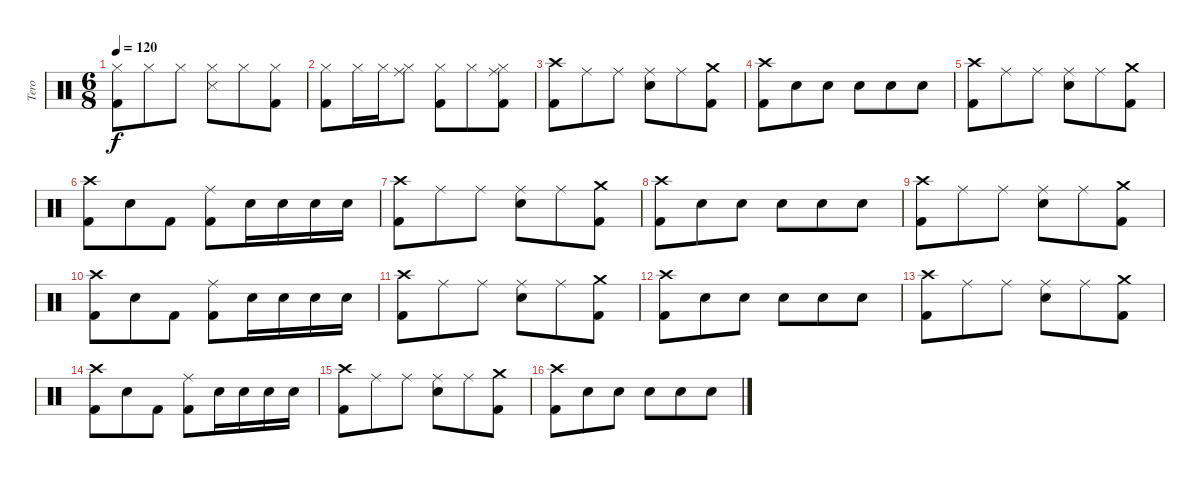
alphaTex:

\track ("Tero" "Tero") {instrument percussion}
\staff {score}
\articulation defaults
\ts (6 8)
\tempo 120
\clef neutral
\ks c
("Hi-Hat (closed)" "Kick (hit) 2").8{dy f} "Hi-Hat (closed)".8 "Hi-Hat (closed)".8 ("Hi-Hat (closed)" "Snare (side stick) 3").8 "Hi-Hat (closed)".8 ("Hi-Hat (closed)" "Kick (hit) 2").8 |
("Hi-Hat (closed)" "Kick (hit) 2").8 "Hi-Hat (closed)".16 "Hi-Hat (closed)".16 ("Hi-Hat (closed)" "Ride (middle)").8 ("Hi-Hat (closed)" "Kick (hit) 2").8 "Hi-Hat (closed)".8 ("Ride (middle)" "Kick (hit) 2" "Hi-Hat (closed)").8 |
("Crash high (hit)" "Kick (hit) 2").8 "Ride (middle)".8 "Ride (middle)".8 ("Ride (middle)" "Snare (hit) 2").8 "Ride (middle)".8 ("Kick (hit) 2" "Crash medium (hit)").8 |
("Kick (hit) 2" "Crash high (hit)").8 "Snare (hit) 2".8 "Snare (hit) 2".8 "Snare (hit) 2".8 "Snare (hit) 2".8 "Snare (hit) 2".8 |
("Crash high (hit)" "Kick (hit) 2").8 "Ride (middle)".8 "Ride (middle)".8 ("Ride (middle)" "Snare (hit) 2").8 "Ride (middle)".8 ("Crash medium (hit)" "Kick (hit) 2").8 |
("Kick (hit) 2" "Crash high (hit)").8 "Snare (hit) 2".8 "Kick (hit) 2".8 ("Ride (middle)" "Kick (hit) 2").8 "Snare (hit) 2".16 "Snare (hit) 2".16 "Snare (hit) 2".16 "Snare (hit) 2".16 |
("Crash high (hit)" "Kick (hit) 2").8 "Ride (middle)".8 "Ride (middle)".8 ("Ride (middle)" "Snare (hit) 2").8 "Ride (middle)".8 ("Kick (hit) 2" "Crash medium (hit)").8 |
("Kick (hit) 2" "Crash high (hit)").8 "Snare (hit) 2".8 "Snare (hit) 2".8 "Snare (hit) 2".8 "Snare (hit) 2".8 "Snare (hit) 2".8 |
("Crash high (hit)" "Kick (hit) 2").8 "Ride (middle)".8 "Ride (middle)".8 ("Ride (middle)" "Snare (hit) 2").8 "Ride (middle)".8 ("Crash medium (hit)" "Kick (hit) 2").8 |
("Kick (hit) 2" "Crash high (hit)").8 "Snare (hit) 2".8 "Kick (hit) 2".8 ("Ride (middle)" "Kick (hit) 2").8 "Snare (hit) 2".16 "Snare (hit) 2".16 "Snare (hit) 2".16 "Snare (hit) 2".16 |
("Crash high (hit)" "Kick (hit) 2").8 "Ride (middle)".8 "Ride (middle)".8 ("Ride (middle)" "Snare (hit) 2").8 "Ride (middle)".8 ("Kick (hit) 2" "Crash medium (hit)").8 |
("Kick (hit) 2" "Crash high (hit)").8 "Snare (hit) 2".8 "Snare (hit) 2".8 "Snare (hit) 2".8 "Snare (hit) 2".8 "Snare (hit) 2".8 |
("Crash high (hit)" "Kick (hit) 2").8 "Ride (middle)".8 "Ride (middle)".8 ("Ride (middle)" "Snare (hit) 2").8 "Ride (middle)".8 ("Crash medium (hit)" "Kick (hit) 2").8 |
("Kick (hit) 2" "Crash high (hit)").8 "Snare (hit) 2".8 "Kick (hit) 2".8 ("Ride (middle)" "Kick (hit) 2").8 "Snare (hit) 2".16 "Snare (hit) 2".16 "Snare (hit) 2".16 "Snare (hit) 2".16 |
("Crash high (hit)" "Kick (hit) 2").8 "Ride (middle)".8 "Ride (middle)".8 ("Ride (middle)" "Snare (hit) 2").8 "Ride (middle)".8 ("Kick (hit) 2" "Crash medium (hit)").8 |
("Kick (hit) 2" "Crash high (hit)").8 "Snare (hit) 2".8 "Snare (hit) 2".8 "Snare (hit) 2".8 "Snare (hit) 2".8 "Snare (hit) 2".8
